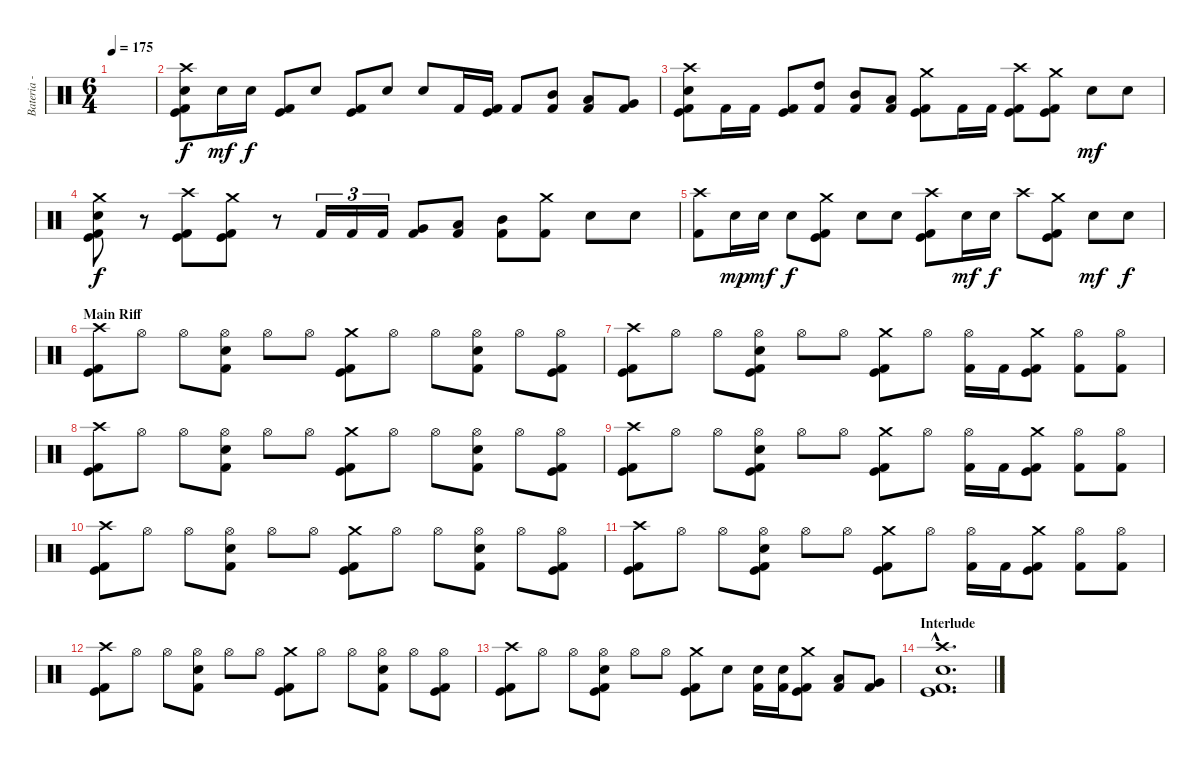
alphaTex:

\track ("Bateria - Drums" "Bateria - ") {instrument percussion}
\staff {score}
\articulation defaults
\ts (6 4)
\tempo 175
\clef neutral
\ks c
|
("Crash high (hit)" "Snare (hit) 2" "Kick (hit)" "Kick (hit) 2").8 "Electric Snare (hit)".16{dy mf} "Electric Snare (hit)".16{dy f} ("Kick (hit)" "Kick (hit) 2").8 "Snare (hit) 2".8 ("Kick (hit)" "Kick (hit) 2").8 "Snare (hit) 2".8 "Snare (hit) 2".8 "Kick (hit) 2".16 ("Kick (hit)" "Kick (hit) 2").16 "Kick (hit) 2".8 ("Mid Tom (hit)" "Kick (hit) 2").8 ("Low Tom (hit)" "Kick (hit) 2").8 ("Very Low Tom (hit)" "Kick (hit) 2").8 |
("Crash high (hit)" "Snare (hit) 2" "Kick (hit)" "Kick (hit) 2").8 "Kick (hit) 2".16 "Kick (hit) 2".16 ("Kick (hit)" "Kick (hit) 2").8 ("High Tom (hit)" "Kick (hit) 2").8 ("Mid Tom (hit)" "Kick (hit) 2").8 ("Low Tom (hit)" "Kick (hit) 2").8 ("Crash medium (hit)" "Kick (hit)" "Kick (hit) 2").8 "Kick (hit) 2".16 "Kick (hit) 2".16 ("Crash high (hit)" "Kick (hit)" "Kick (hit) 2").8 ("Crash medium (hit)" "Kick (hit)" "Kick (hit) 2").8 "Snare (hit) 2".8{dy mf} "Snare (hit) 2".8 |
("Crash medium (hit)" "Snare (hit) 2" "Kick (hit)" "Kick (hit) 2").8{dy f} r.8 ("Crash high (hit)" "Kick (hit)" "Kick (hit) 2").8 ("Crash medium (hit)" "Kick (hit)" "Kick (hit) 2").8 r.8 "Kick (hit) 2".16{tu (3 2)} "Kick (hit) 2".16{tu (3 2)} "Kick (hit) 2".16{tu (3 2)} ("Very Low Tom (hit)" "Kick (hit) 2").8 ("Low Tom (hit)" "Kick (hit) 2").8 ("Mid Tom (hit)" "Kick (hit) 2").8 ("Crash medium (hit)" "Kick (hit) 2").8 "Snare (hit) 2".8 "Snare (hit) 2".8 |
("Crash high (hit)" "Kick (hit) 2").8 "Snare (hit) 2".16{dy mp} "Snare (hit) 2".16{dy mf} "Snare (hit) 2".8{dy f} ("Crash medium (hit)" "Kick (hit)" "Kick (hit) 2").8 "Snare (hit) 2".8 "Snare (hit) 2".8 ("Crash high (hit)" "Kick (hit)" "Kick (hit) 2").8 "Electric Snare (hit)".16{dy mf} "Electric Snare (hit)".16{dy f} "Crash high (hit)".8 ("Crash medium (hit)" "Kick (hit)" "Kick (hit) 2").8 "Snare (hit) 2".8{dy mf} "Snare (hit) 2".8{dy f} |
\section ("" "Main Riff")
("Crash high (hit)" "Kick (hit)" "Kick (hit) 2").8 "Hi-Hat (open)".8 "Hi-Hat (open)".8 ("Hi-Hat (open)" "Snare (hit) 2" "Kick (hit) 2").8 "Hi-Hat (open)".8 "Hi-Hat (open)".8 ("Crash medium (hit)" "Kick (hit)" "Kick (hit) 2").8 "Hi-Hat (open)".8 "Hi-Hat (open)".8 ("Hi-Hat (open)" "Snare (hit) 2" "Kick (hit) 2").8 "Hi-Hat (open)".8 ("Hi-Hat (open)" "Kick (hit)" "Kick (hit) 2").8 |
("Crash high (hit)" "Kick (hit)" "Kick (hit) 2").8 "Hi-Hat (open)".8 "Hi-Hat (open)".8 ("Hi-Hat (open)" "Snare (hit) 2" "Kick (hit)" "Kick (hit) 2").8 "Hi-Hat (open)".8 "Hi-Hat (open)".8 ("Crash medium (hit)" "Kick (hit)" "Kick (hit) 2").8 "Hi-Hat (open)".8 ("Hi-Hat (open)" "Kick (hit) 2").16 "Kick (hit) 2".16 ("Crash medium (hit)" "Kick (hit)" "Kick (hit) 2").8 ("Hi-Hat (open)" "Kick (hit) 2").8 ("Hi-Hat (open)" "Kick (hit) 2").8 |
("Crash high (hit)" "Kick (hit)" "Kick (hit) 2").8 "Hi-Hat (open)".8 "Hi-Hat (open)".8 ("Hi-Hat (open)" "Snare (hit) 2" "Kick (hit) 2").8 "Hi-Hat (open)".8 "Hi-Hat (open)".8 ("Crash medium (hit)" "Kick (hit)" "Kick (hit) 2").8 "Hi-Hat (open)".8 "Hi-Hat (open)".8 ("Hi-Hat (open)" "Snare (hit) 2" "Kick (hit) 2").8 "Hi-Hat (open)".8 ("Hi-Hat (open)" "Kick (hit)" "Kick (hit) 2").8 |
("Crash high (hit)" "Kick (hit)" "Kick (hit) 2").8 "Hi-Hat (open)".8 "Hi-Hat (open)".8 ("Hi-Hat (open)" "Snare (hit) 2" "Kick (hit)" "Kick (hit) 2").8 "Hi-Hat (open)".8 "Hi-Hat (open)".8 ("Crash medium (hit)" "Kick (hit)" "Kick (hit) 2").8 "Hi-Hat (open)".8 ("Hi-Hat (open)" "Kick (hit) 2").16 "Kick (hit) 2".16 ("Crash medium (hit)" "Kick (hit)" "Kick (hit) 2").8 ("Hi-Hat (open)" "Kick (hit) 2").8 ("Hi-Hat (open)" "Kick (hit) 2").8 |
("Crash high (hit)" "Kick (hit)" "Kick (hit) 2").8 "Hi-Hat (open)".8 "Hi-Hat (open)".8 ("Hi-Hat (open)" "Snare (hit) 2" "Kick (hit) 2").8 "Hi-Hat (open)".8 "Hi-Hat (open)".8 ("Crash medium (hit)" "Kick (hit)" "Kick (hit) 2").8 "Hi-Hat (open)".8 "Hi-Hat (open)".8 ("Hi-Hat (open)" "Snare (hit) 2" "Kick (hit) 2").8 "Hi-Hat (open)".8 ("Hi-Hat (open)" "Kick (hit)" "Kick (hit) 2").8 |
("Crash high (hit)" "Kick (hit)" "Kick (hit) 2").8 "Hi-Hat (open)".8 "Hi-Hat (open)".8 ("Hi-Hat (open)" "Snare (hit) 2" "Kick (hit)" "Kick (hit) 2").8 "Hi-Hat (open)".8 "Hi-Hat (open)".8 ("Crash medium (hit)" "Kick (hit)" "Kick (hit) 2").8 "Hi-Hat (open)".8 ("Hi-Hat (open)" "Kick (hit) 2").16 "Kick (hit) 2".16 ("Crash medium (hit)" "Kick (hit)" "Kick (hit) 2").8 ("Hi-Hat (open)" "Kick (hit) 2").8 ("Hi-Hat (open)" "Kick (hit) 2").8 |
("Crash high (hit)" "Kick (hit)" "Kick (hit) 2").8 "Hi-Hat (open)".8 "Hi-Hat (open)".8 ("Hi-Hat (open)" "Snare (hit) 2" "Kick (hit) 2").8 "Hi-Hat (open)".8 "Hi-Hat (open)".8 ("Crash medium (hit)" "Kick (hit)" "Kick (hit) 2").8 "Hi-Hat (open)".8 "Hi-Hat (open)".8 ("Hi-Hat (open)" "Snare (hit) 2" "Kick (hit) 2").8 "Hi-Hat (open)".8 ("Hi-Hat (open)" "Kick (hit)" "Kick (hit) 2").8 |
("Crash high (hit)" "Kick (hit)" "Kick (hit) 2").8 "Hi-Hat (open)".8 "Hi-Hat (open)".8 ("Hi-Hat (open)" "Snare (hit) 2" "Kick (hit)" "Kick (hit) 2").8 "Hi-Hat (open)".8 "Hi-Hat (open)".8 ("Crash medium (hit)" "Kick (hit)" "Kick (hit) 2").8 "Snare (hit) 2".8 ("Snare (hit) 2" "Kick (hit) 2").16 ("Snare (hit) 2" "Kick (hit) 2").16 ("Crash medium (hit)" "Kick (hit)" "Kick (hit) 2").8 ("Low Tom (hit)" "Kick (hit) 2").8 ("Very Low Tom (hit)" "Kick (hit) 2").8 |
\section ("" "Interlude")
("Crash high (hit)"{hac} "Snare (hit) 2"{hac} "Kick (hit)"{hac} "Kick (hit) 2"{hac}).1{d}
